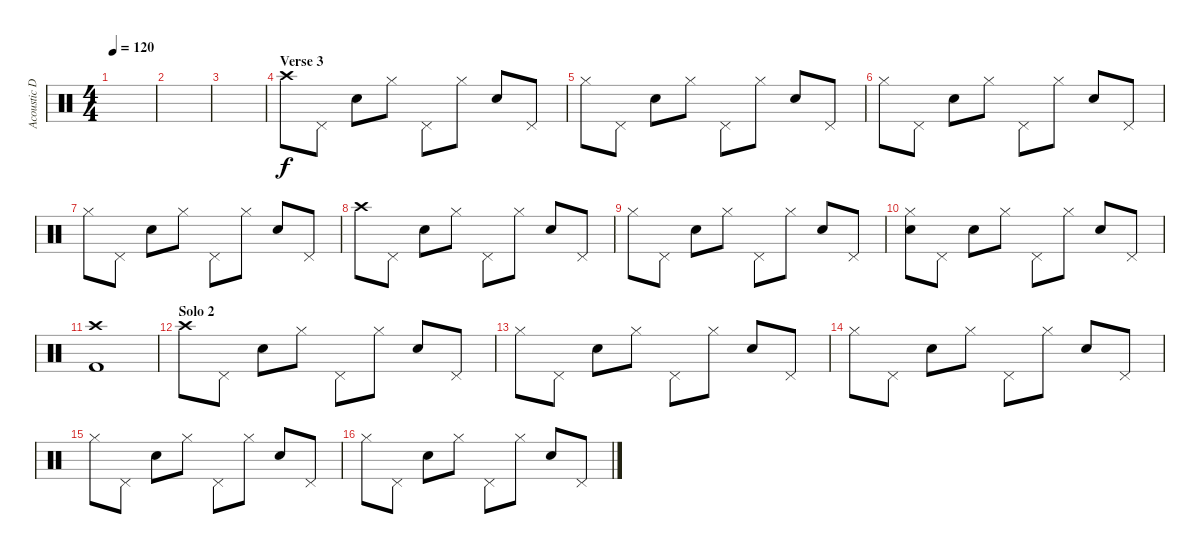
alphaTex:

\track ("Acoustic Drums" "Acoustic D") {instrument percussion}
\staff {score}
\articulation defaults
\ts (4 4)
\tempo 120
\clef neutral
\ks c
|
|
|
\section ("" "Verse 3")
"Crash high (hit)".8 "Pedal Hi-Hat (hit)".8 "Electric Snare (hit)".8 "Hi-Hat (closed)".8 "Pedal Hi-Hat (hit)".8 "Hi-Hat (closed)".8 "Electric Snare (hit)".8 "Pedal Hi-Hat (hit)".8 |
"Hi-Hat (closed)".8 "Pedal Hi-Hat (hit)".8 "Electric Snare (hit)".8 "Hi-Hat (closed)".8 "Pedal Hi-Hat (hit)".8 "Hi-Hat (closed)".8 "Electric Snare (hit)".8 "Pedal Hi-Hat (hit)".8 |
"Hi-Hat (closed)".8 "Pedal Hi-Hat (hit)".8 "Electric Snare (hit)".8 "Hi-Hat (closed)".8 "Pedal Hi-Hat (hit)".8 "Hi-Hat (closed)".8 "Electric Snare (hit)".8 "Pedal Hi-Hat (hit)".8 |
"Hi-Hat (closed)".8 "Pedal Hi-Hat (hit)".8 "Electric Snare (hit)".8 "Hi-Hat (closed)".8 "Pedal Hi-Hat (hit)".8 "Hi-Hat (closed)".8 "Electric Snare (hit)".8 "Pedal Hi-Hat (hit)".8 |
"Crash high (hit)".8 "Pedal Hi-Hat (hit)".8 "Electric Snare (hit)".8 "Hi-Hat (closed)".8 "Pedal Hi-Hat (hit)".8 "Hi-Hat (closed)".8 "Electric Snare (hit)".8 "Pedal Hi-Hat (hit)".8 |
"Hi-Hat (closed)".8 "Pedal Hi-Hat (hit)".8 "Electric Snare (hit)".8 "Hi-Hat (closed)".8 "Pedal Hi-Hat (hit)".8 "Hi-Hat (closed)".8 "Electric Snare (hit)".8 "Pedal Hi-Hat (hit)".8 |
("Electric Snare (hit)" "Hi-Hat (closed)").8 "Pedal Hi-Hat (hit)".8 "Electric Snare (hit)".8 "Hi-Hat (closed)".8 "Pedal Hi-Hat (hit)".8 "Hi-Hat (closed)".8 "Electric Snare (hit)".8 "Pedal Hi-Hat (hit)".8 |
("Kick (hit) 2" "Crash high (hit)").1 |
\section ("" "Solo 2")
"Crash high (hit)".8 "Pedal Hi-Hat (hit)".8 "Electric Snare (hit)".8 "Hi-Hat (closed)".8 "Pedal Hi-Hat (hit)".8 "Hi-Hat (closed)".8 "Electric Snare (hit)".8 "Pedal Hi-Hat (hit)".8 |
"Hi-Hat (closed)".8 "Pedal Hi-Hat (hit)".8 "Electric Snare (hit)".8 "Hi-Hat (closed)".8 "Pedal Hi-Hat (hit)".8 "Hi-Hat (closed)".8 "Electric Snare (hit)".8 "Pedal Hi-Hat (hit)".8 |
"Hi-Hat (closed)".8 "Pedal Hi-Hat (hit)".8 "Electric Snare (hit)".8 "Hi-Hat (closed)".8 "Pedal Hi-Hat (hit)".8 "Hi-Hat (closed)".8 "Electric Snare (hit)".8 "Pedal Hi-Hat (hit)".8 |
"Hi-Hat (closed)".8 "Pedal Hi-Hat (hit)".8 "Electric Snare (hit)".8 "Hi-Hat (closed)".8 "Pedal Hi-Hat (hit)".8 "Hi-Hat (closed)".8 "Electric Snare (hit)".8 "Pedal Hi-Hat (hit)".8 |
"Hi-Hat (closed)".8 "Pedal Hi-Hat (hit)".8 "Electric Snare (hit)".8 "Hi-Hat (closed)".8 "Pedal Hi-Hat (hit)".8 "Hi-Hat (closed)".8 "Electric Snare (hit)".8 "Pedal Hi-Hat (hit)".8
